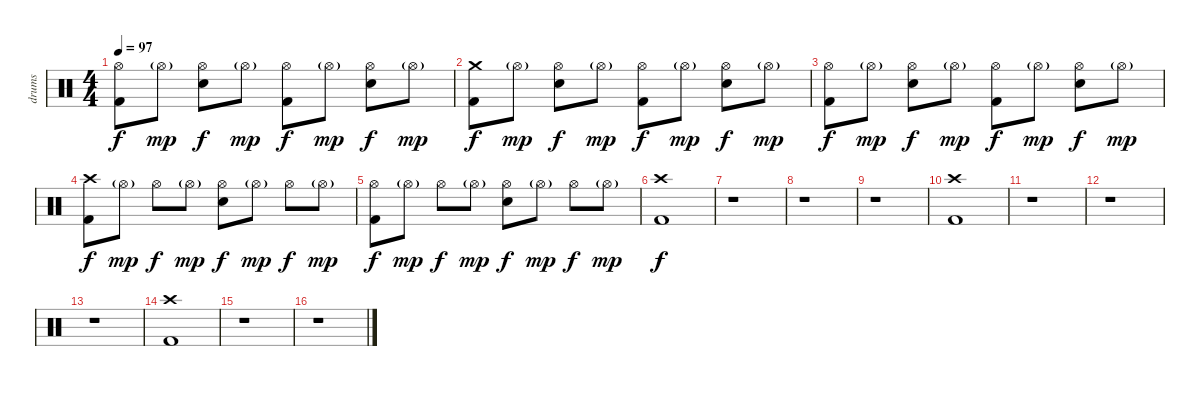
\track ("drums" "drums") {instrument percussion}
\staff {score}
\articulation defaults
\ts (4 4)
\tempo 97
\clef neutral
\ks c
("Hi-Hat (open)" "Kick (hit) 2").8{dy f} "Hi-Hat (open)"{g}.8{dy mp} ("Hi-Hat (open)" "Electric Snare (hit)").8{dy f} "Hi-Hat (open)"{g}.8{dy mp} ("Hi-Hat (open)" "Kick (hit) 2").8{dy f} "Hi-Hat (open)"{g}.8{dy mp} ("Hi-Hat (open)" "Electric Snare (hit)").8{dy f} "Hi-Hat (open)"{g}.8{dy mp} |
("Crash medium (hit)" "Kick (hit) 2").8{dy f} "Hi-Hat (open)"{g}.8{dy mp} ("Hi-Hat (open)" "Electric Snare (hit)").8{dy f} "Hi-Hat (open)"{g}.8{dy mp} ("Hi-Hat (open)" "Kick (hit) 2").8{dy f} "Hi-Hat (open)"{g}.8{dy mp} ("Hi-Hat (open)" "Electric Snare (hit)").8{dy f} "Hi-Hat (open)"{g}.8{dy mp} |
("Hi-Hat (open)" "Kick (hit) 2").8{dy f} "Hi-Hat (open)"{g}.8{dy mp} ("Hi-Hat (open)" "Electric Snare (hit)").8{dy f} "Hi-Hat (open)"{g}.8{dy mp} ("Hi-Hat (open)" "Kick (hit) 2").8{dy f} "Hi-Hat (open)"{g}.8{dy mp} ("Hi-Hat (open)" "Electric Snare (hit)").8{dy f} "Hi-Hat (open)"{g}.8{dy mp} |
("Crash high (hit)" "Kick (hit) 2").8{dy f} "Hi-Hat (open)"{g}.8{dy mp} "Hi-Hat (open)".8{dy f} "Hi-Hat (open)"{g}.8{dy mp} ("Hi-Hat (open)" "Electric Snare (hit)").8{dy f} "Hi-Hat (open)"{g}.8{dy mp} "Hi-Hat (open)".8{dy f} "Hi-Hat (open)"{g}.8{dy mp} |
("Hi-Hat (open)" "Kick (hit) 2").8{dy f} "Hi-Hat (open)"{g}.8{dy mp} "Hi-Hat (open)".8{dy f} "Hi-Hat (open)"{g}.8{dy mp} ("Hi-Hat (open)" "Electric Snare (hit)").8{dy f} "Hi-Hat (open)"{g}.8{dy mp} "Hi-Hat (open)".8{dy f} "Hi-Hat (open)"{g}.8{dy mp} |
("Crash high (hit)" "Kick (hit) 2").1{dy f} |
r.1 |
r.1 |
r.1 |
("Crash high (hit)" "Kick (hit) 2").1 |
r.1 |
r.1 |
r.1 |
("Crash high (hit)" "Kick (hit) 2").1 |
r.1 |
r.1
